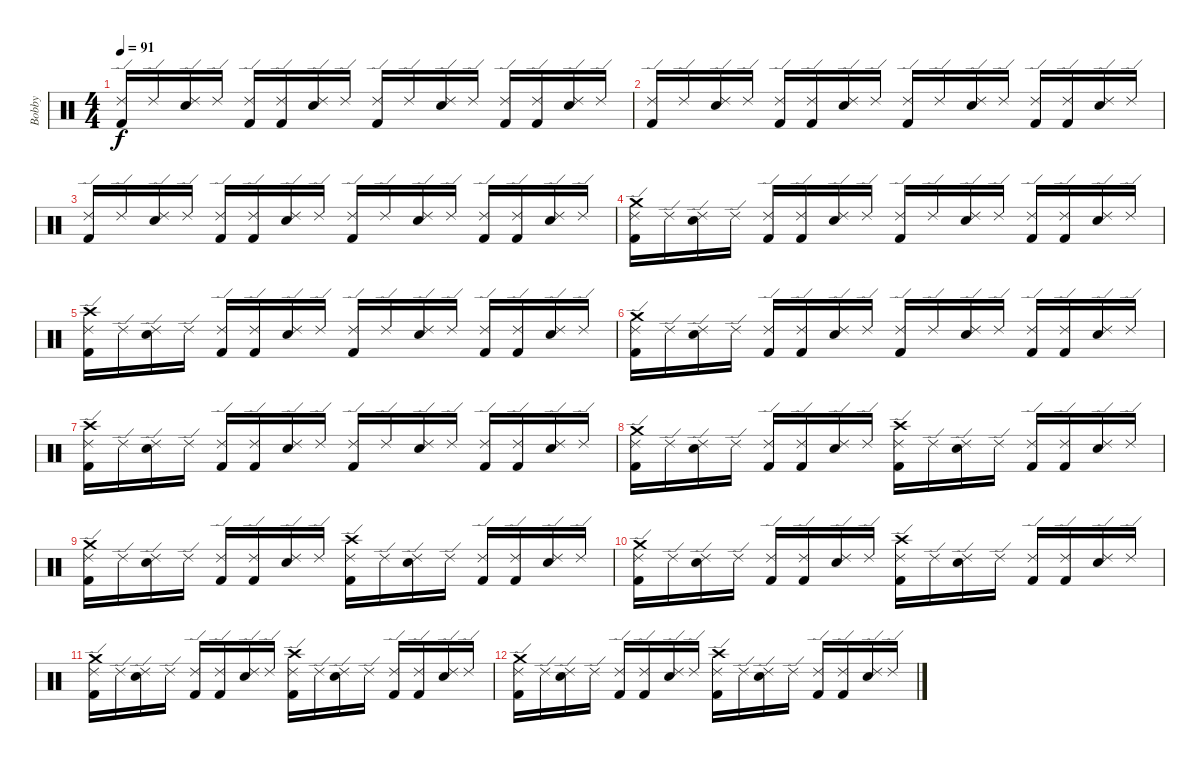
\track ("Bobby" "Bobby") {instrument percussion}
\staff {score}
\articulation defaults
\ts (4 4)
\tempo 91
\clef neutral
\ks c
("Ride (edge) 2" "Kick (hit) 2").16{dy f} "Ride (edge) 2".16 ("Ride (edge) 2" "Snare (hit) 2").16 "Ride (edge) 2".16 ("Ride (edge) 2" "Kick (hit) 2").16 ("Ride (edge) 2" "Kick (hit) 2").16 ("Ride (edge) 2" "Snare (hit) 2").16 "Ride (edge) 2".16 ("Ride (edge) 2" "Kick (hit) 2").16 "Ride (edge) 2".16 ("Ride (edge) 2" "Snare (hit) 2").16 "Ride (edge) 2".16 ("Ride (edge) 2" "Kick (hit) 2").16 ("Ride (edge) 2" "Kick (hit) 2").16 ("Ride (edge) 2" "Snare (hit) 2").16 "Ride (edge) 2".16 |
("Ride (edge) 2" "Kick (hit) 2").16 "Ride (edge) 2".16 ("Ride (edge) 2" "Snare (hit) 2").16 "Ride (edge) 2".16 ("Ride (edge) 2" "Kick (hit) 2").16 ("Ride (edge) 2" "Kick (hit) 2").16 ("Ride (edge) 2" "Snare (hit) 2").16 "Ride (edge) 2".16 ("Ride (edge) 2" "Kick (hit) 2").16 "Ride (edge) 2".16 ("Ride (edge) 2" "Snare (hit) 2").16 "Ride (edge) 2".16 ("Ride (edge) 2" "Kick (hit) 2").16 ("Ride (edge) 2" "Kick (hit) 2").16 ("Ride (edge) 2" "Snare (hit) 2").16 "Ride (edge) 2".16 |
("Ride (edge) 2" "Kick (hit) 2").16 "Ride (edge) 2".16 ("Ride (edge) 2" "Snare (hit) 2").16 "Ride (edge) 2".16 ("Ride (edge) 2" "Kick (hit) 2").16 ("Ride (edge) 2" "Kick (hit) 2").16 ("Ride (edge) 2" "Snare (hit) 2").16 "Ride (edge) 2".16 ("Ride (edge) 2" "Kick (hit) 2").16 "Ride (edge) 2".16 ("Ride (edge) 2" "Snare (hit) 2").16 "Ride (edge) 2".16 ("Ride (edge) 2" "Kick (hit) 2").16 ("Ride (edge) 2" "Kick (hit) 2").16 ("Ride (edge) 2" "Snare (hit) 2").16 "Ride (edge) 2".16 |
("Ride (edge) 2" "Crash medium (hit)" "Kick (hit) 2").16 "Ride (edge) 2".16 ("Ride (edge) 2" "Snare (hit) 2").16 "Ride (edge) 2".16 ("Ride (edge) 2" "Kick (hit) 2").16 ("Ride (edge) 2" "Kick (hit) 2").16 ("Ride (edge) 2" "Snare (hit) 2").16 "Ride (edge) 2".16 ("Ride (edge) 2" "Kick (hit) 2").16 "Ride (edge) 2".16 ("Ride (edge) 2" "Snare (hit) 2").16 "Ride (edge) 2".16 ("Ride (edge) 2" "Kick (hit) 2").16 ("Ride (edge) 2" "Kick (hit) 2").16 ("Ride (edge) 2" "Snare (hit) 2").16 "Ride (edge) 2".16 |
("Ride (edge) 2" "Crash high (hit)" "Kick (hit) 2").16 "Ride (edge) 2".16 ("Ride (edge) 2" "Snare (hit) 2").16 "Ride (edge) 2".16 ("Ride (edge) 2" "Kick (hit) 2").16 ("Ride (edge) 2" "Kick (hit) 2").16 ("Ride (edge) 2" "Snare (hit) 2").16 "Ride (edge) 2".16 ("Ride (edge) 2" "Kick (hit) 2").16 "Ride (edge) 2".16 ("Ride (edge) 2" "Snare (hit) 2").16 "Ride (edge) 2".16 ("Ride (edge) 2" "Kick (hit) 2").16 ("Ride (edge) 2" "Kick (hit) 2").16 ("Ride (edge) 2" "Snare (hit) 2").16 "Ride (edge) 2".16 |
("Ride (edge) 2" "Crash medium (hit)" "Kick (hit) 2").16 "Ride (edge) 2".16 ("Ride (edge) 2" "Snare (hit) 2").16 "Ride (edge) 2".16 ("Ride (edge) 2" "Kick (hit) 2").16 ("Ride (edge) 2" "Kick (hit) 2").16 ("Ride (edge) 2" "Snare (hit) 2").16 "Ride (edge) 2".16 ("Ride (edge) 2" "Kick (hit) 2").16 "Ride (edge) 2".16 ("Ride (edge) 2" "Snare (hit) 2").16 "Ride (edge) 2".16 ("Ride (edge) 2" "Kick (hit) 2").16 ("Ride (edge) 2" "Kick (hit) 2").16 ("Ride (edge) 2" "Snare (hit) 2").16 "Ride (edge) 2".16 |
("Ride (edge) 2" "Crash high (hit)" "Kick (hit) 2").16 "Ride (edge) 2".16 ("Ride (edge) 2" "Snare (hit) 2").16 "Ride (edge) 2".16 ("Ride (edge) 2" "Kick (hit) 2").16 ("Ride (edge) 2" "Kick (hit) 2").16 ("Ride (edge) 2" "Snare (hit) 2").16 "Ride (edge) 2".16 ("Ride (edge) 2" "Kick (hit) 2").16 "Ride (edge) 2".16 ("Ride (edge) 2" "Snare (hit) 2").16 "Ride (edge) 2".16 ("Ride (edge) 2" "Kick (hit) 2").16 ("Ride (edge) 2" "Kick (hit) 2").16 ("Ride (edge) 2" "Snare (hit) 2").16 "Ride (edge) 2".16 |
("Ride (edge) 2" "Crash medium (hit)" "Kick (hit) 2").16{volume 1} "Ride (edge) 2".16 ("Ride (edge) 2" "Snare (hit) 2").16 "Ride (edge) 2".16 ("Ride (edge) 2" "Kick (hit) 2").16 ("Ride (edge) 2" "Kick (hit) 2").16 ("Ride (edge) 2" "Snare (hit) 2").16 "Ride (edge) 2".16 ("Ride (edge) 2" "Crash high (hit)" "Kick (hit) 2").16 "Ride (edge) 2".16 ("Ride (edge) 2" "Snare (hit) 2").16 "Ride (edge) 2".16 ("Ride (edge) 2" "Kick (hit) 2").16 ("Ride (edge) 2" "Kick (hit) 2").16 ("Ride (edge) 2" "Snare (hit) 2").16 "Ride (edge) 2".16 |
("Ride (edge) 2" "Crash medium (hit)" "Kick (hit) 2").16 "Ride (edge) 2".16 ("Ride (edge) 2" "Snare (hit) 2").16 "Ride (edge) 2".16 ("Ride (edge) 2" "Kick (hit) 2").16 ("Ride (edge) 2" "Kick (hit) 2").16 ("Ride (edge) 2" "Snare (hit) 2").16 "Ride (edge) 2".16 ("Ride (edge) 2" "Crash high (hit)" "Kick (hit) 2").16 "Ride (edge) 2".16 ("Ride (edge) 2" "Snare (hit) 2").16 "Ride (edge) 2".16 ("Ride (edge) 2" "Kick (hit) 2").16 ("Ride (edge) 2" "Kick (hit) 2").16 ("Ride (edge) 2" "Snare (hit) 2").16 "Ride (edge) 2".16 |
("Ride (edge) 2" "Crash medium (hit)" "Kick (hit) 2").16 "Ride (edge) 2".16 ("Ride (edge) 2" "Snare (hit) 2").16 "Ride (edge) 2".16 ("Ride (edge) 2" "Kick (hit) 2").16 ("Ride (edge) 2" "Kick (hit) 2").16 ("Ride (edge) 2" "Snare (hit) 2").16 "Ride (edge) 2".16 ("Ride (edge) 2" "Crash high (hit)" "Kick (hit) 2").16 "Ride (edge) 2".16 ("Ride (edge) 2" "Snare (hit) 2").16 "Ride (edge) 2".16 ("Ride (edge) 2" "Kick (hit) 2").16 ("Ride (edge) 2" "Kick (hit) 2").16 ("Ride (edge) 2" "Snare (hit) 2").16 "Ride (edge) 2".16 |
("Ride (edge) 2" "Crash medium (hit)" "Kick (hit) 2").16 "Ride (edge) 2".16 ("Ride (edge) 2" "Snare (hit) 2").16 "Ride (edge) 2".16 ("Ride (edge) 2" "Kick (hit) 2").16 ("Ride (edge) 2" "Kick (hit) 2").16 ("Ride (edge) 2" "Snare (hit) 2").16 "Ride (edge) 2".16 ("Ride (edge) 2" "Crash high (hit)" "Kick (hit) 2").16 "Ride (edge) 2".16 ("Ride (edge) 2" "Snare (hit) 2").16 "Ride (edge) 2".16 ("Ride (edge) 2" "Kick (hit) 2").16 ("Ride (edge) 2" "Kick (hit) 2").16 ("Ride (edge) 2" "Snare (hit) 2").16 "Ride (edge) 2".16 |
("Ride (edge) 2" "Crash medium (hit)" "Kick (hit) 2").16 "Ride (edge) 2".16 ("Ride (edge) 2" "Snare (hit) 2").16 "Ride (edge) 2".16 ("Ride (edge) 2" "Kick (hit) 2").16 ("Ride (edge) 2" "Kick (hit) 2").16 ("Ride (edge) 2" "Snare (hit) 2").16 "Ride (edge) 2".16 ("Ride (edge) 2" "Crash high (hit)" "Kick (hit) 2").16 "Ride (edge) 2".16 ("Ride (edge) 2" "Snare (hit) 2").16 "Ride (edge) 2".16 ("Ride (edge) 2" "Kick (hit) 2").16 ("Ride (edge) 2" "Kick (hit) 2").16 ("Ride (edge) 2" "Snare (hit) 2").16 "Ride (edge) 2".16
